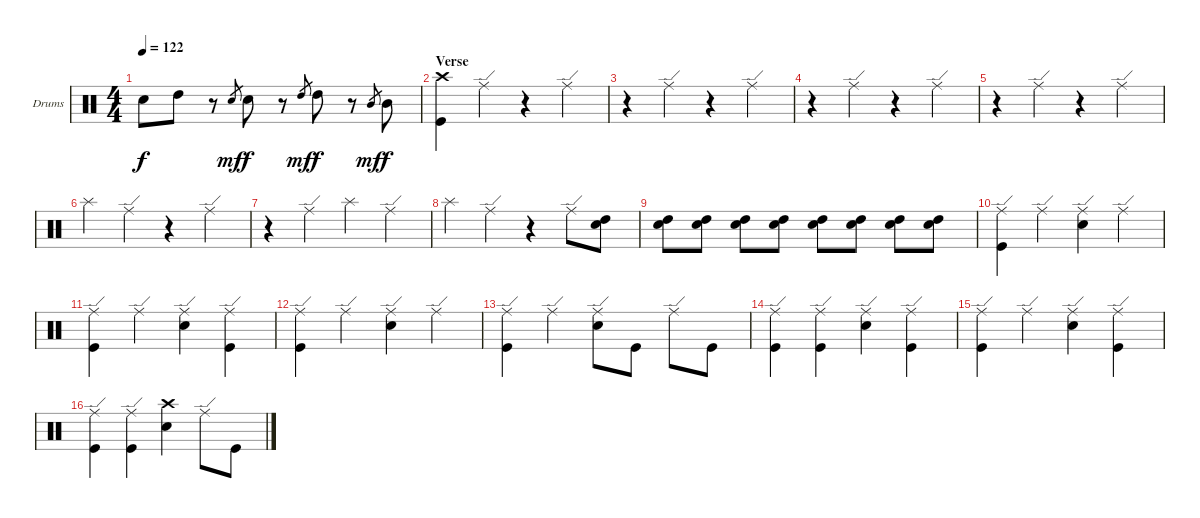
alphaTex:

\bracketExtendMode groupsimilarinstruments
\firstSystemTrackNameOrientation horizontal
\otherSystemsTrackNameOrientation horizontal
\track ("Drumkit" "Drums") {instrument percussion}
\staff {score}
\articulation defaults
\ts (4 4)
\tempo 122
\clef neutral
\ks c "Snare (hit) 2".8{dy f} "High Tom (hit)".8
r.8 "Snare (hit) 2".8{gr dy mf} "Snare (hit) 2".8{dy f} r.8 "High Tom (hit)".8{gr dy mf} "High Tom (hit)".8{dy f} r.8 "Mid Tom (hit)".8{gr dy mf} "Mid Tom (hit)".8{dy f} |
\section ("" "Verse")
("Kick (hit)" "Crash high (hit)").4 "Ride (edge)".4 r.4 "Ride (edge)".4 |
r.4 "Ride (edge)".4 r.4 "Ride (edge)".4 |
r.4 "Ride (edge)".4 r.4 "Ride (edge)".4 |
r.4 "Ride (edge)".4 r.4 "Ride (edge)".4 |
"Splash (hit)".4 "Ride (edge)".4 r.4 "Ride (edge)".4 |
r.4 "Ride (edge)".4 "Splash (hit)".4 "Ride (edge)".4 |
"Splash (hit)".4 "Ride (edge)".4 r.4 "Ride (edge)".8 ("Snare (hit) 2" "High Tom (hit)").8 |
("Snare (hit) 2" "High Tom (hit)").8 ("Snare (hit) 2" "High Tom (hit)").8 ("Snare (hit) 2" "High Tom (hit)").8 ("Snare (hit) 2" "High Tom (hit)").8 ("Snare (hit) 2" "High Tom (hit)").8 ("Snare (hit) 2" "High Tom (hit)").8 ("Snare (hit) 2" "High Tom (hit)").8 ("Snare (hit) 2" "High Tom (hit)").8 |
("Kick (hit)" "Ride (edge)").4 "Ride (edge)".4 ("Snare (hit) 2" "Ride (edge)").4 "Ride (edge)".4 |
("Kick (hit)" "Ride (edge)").4 "Ride (edge)".4 ("Snare (hit) 2" "Ride (edge)").4 ("Kick (hit)" "Ride (edge)").4 |
("Kick (hit)" "Ride (edge)").4 "Ride (edge)".4 ("Snare (hit) 2" "Ride (edge)").4 "Ride (edge)".4 |
("Kick (hit)" "Ride (edge)").4 "Ride (edge)".4 ("Snare (hit) 2" "Ride (edge)").8 "Kick (hit)".8 "Ride (edge)".8 "Kick (hit)".8 |
("Kick (hit)" "Ride (edge)").4 ("Kick (hit)" "Ride (edge)").4 ("Snare (hit) 2" "Ride (edge)").4 ("Kick (hit)" "Ride (edge)").4 |
("Kick (hit)" "Ride (edge)").4 "Ride (edge)".4 ("Snare (hit) 2" "Ride (edge)").4 ("Kick (hit)" "Ride (edge)").4 |
("Kick (hit)" "Ride (edge)").4 ("Kick (hit)" "Ride (edge)").4 ("Snare (hit) 2" "Crash high (hit)").4 "Ride (edge)".8 "Kick (hit)".8
